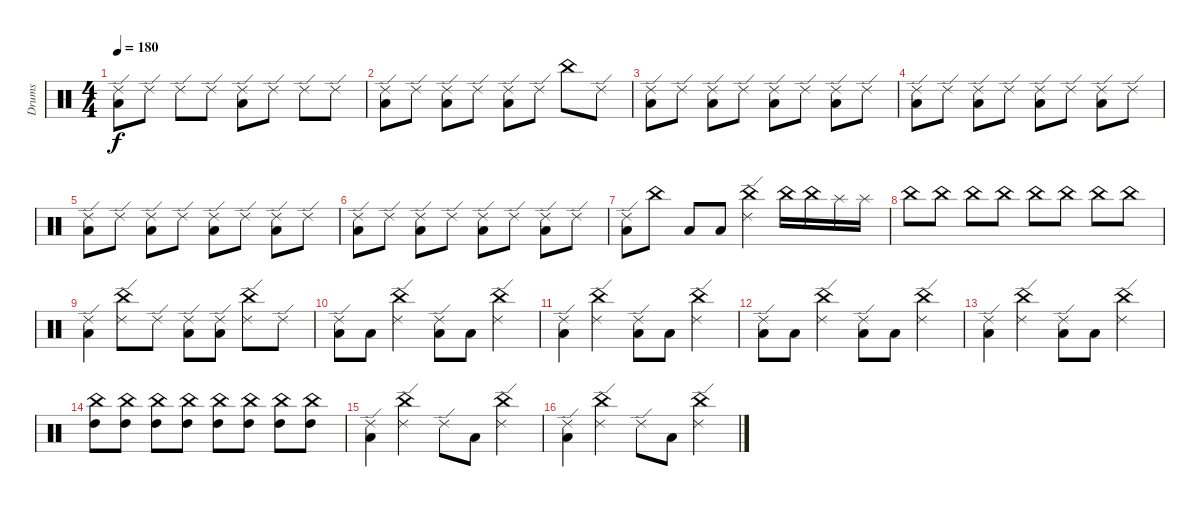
\track ("Drums" "Drums") {instrument percussion}
\staff {score}
\articulation defaults
\ts (4 4)
\tempo 180
\clef neutral
\ks c
("Low Tom (hit)" "Ride (edge) 2").8{dy f} "Ride (edge) 2".8 "Ride (edge) 2".8 "Ride (edge) 2".8 ("Low Tom (hit)" "Ride (edge) 2").8 "Ride (edge) 2".8 "Ride (edge) 2".8 "Ride (edge) 2".8 |
("Low Tom (hit)" "Ride (edge) 2").8 "Ride (edge) 2".8 ("Low Tom (hit)" "Ride (edge) 2").8 "Ride (edge) 2".8 ("Low Tom (hit)" "Ride (edge) 2").8 "Ride (edge) 2".8 "China (hit)".8 "Ride (edge) 2".8 |
("Low Tom (hit)" "Ride (edge) 2").8 "Ride (edge) 2".8 ("Low Tom (hit)" "Ride (edge) 2").8 "Ride (edge) 2".8 ("Low Tom (hit)" "Ride (edge) 2").8 "Ride (edge) 2".8 ("Low Tom (hit)" "Ride (edge) 2").8 "Ride (edge) 2".8 |
("Low Tom (hit)" "Ride (edge) 2").8 "Ride (edge) 2".8 ("Ride (edge) 2" "Low Tom (hit)").8 "Ride (edge) 2".8 ("Low Tom (hit)" "Ride (edge) 2").8 "Ride (edge) 2".8 ("Low Tom (hit)" "Ride (edge) 2").8 "Ride (edge) 2".8 |
("Low Tom (hit)" "Ride (edge) 2").8 "Ride (edge) 2".8 ("Low Tom (hit)" "Ride (edge) 2").8 "Ride (edge) 2".8 ("Ride (edge) 2" "Low Tom (hit)").8 "Ride (edge) 2".8 ("Low Tom (hit)" "Ride (edge) 2").8 "Ride (edge) 2".8 |
("Low Tom (hit)" "Ride (edge) 2").8 "Ride (edge) 2".8 ("Ride (edge) 2" "Low Tom (hit)").8 "Ride (edge) 2".8 ("Low Tom (hit)" "Ride (edge) 2").8 "Ride (edge) 2".8 ("Ride (edge) 2" "Low Tom (hit)").8 "Ride (edge) 2".8 |
("Low Tom (hit)" "Ride (edge) 2").8 "China (hit)".8 "Low Tom (hit)".8 "Low Tom (hit)".8 ("China (hit)" "Ride (edge) 2").4 "China (hit)".16 "China (hit)".16 "Splash (hit)".16 "Splash (hit)".16 |
"China (hit)".8 "China (hit)".8 "China (hit)".8 "China (hit)".8 "China (hit)".8 "China (hit)".8 "China (hit)".8 "China (hit)".8 |
("Low Tom (hit)" "Ride (edge) 2").4 ("China (hit)" "Ride (edge) 2").8 "Ride (edge) 2".8 ("Low Tom (hit)" "Ride (edge) 2").8 ("Low Tom (hit)" "Ride (edge) 2").8 ("China (hit)" "Ride (edge) 2").8 "Ride (edge) 2".8 |
("Low Tom (hit)" "Ride (edge) 2").8 "Low Tom (hit)".8 ("China (hit)" "Ride (edge) 2").4 ("Low Tom (hit)" "Ride (edge) 2").8 "Low Tom (hit)".8 ("China (hit)" "Ride (edge) 2").4 |
("Low Tom (hit)" "Ride (edge) 2").4 ("China (hit)" "Ride (edge) 2").4 ("Low Tom (hit)" "Ride (edge) 2").8 "Low Tom (hit)".8 ("China (hit)" "Ride (edge) 2").4 |
("Low Tom (hit)" "Ride (edge) 2").8 "Low Tom (hit)".8 ("China (hit)" "Ride (edge) 2").4 ("Low Tom (hit)" "Ride (edge) 2").8 "Low Tom (hit)".8 ("China (hit)" "Ride (edge) 2").4 |
("Low Tom (hit)" "Ride (edge) 2").4 ("China (hit)" "Ride (edge) 2").4 ("Low Tom (hit)" "Ride (edge) 2").8 "Low Tom (hit)".8 ("China (hit)" "Ride (edge) 2").4 |
("High Tom (hit)" "China (hit)").8 ("High Tom (hit)" "China (hit)").8 ("High Tom (hit)" "China (hit)").8 ("High Tom (hit)" "China (hit)").8 ("High Tom (hit)" "China (hit)").8 ("High Tom (hit)" "China (hit)").8 ("High Tom (hit)" "China (hit)").8 ("High Tom (hit)" "China (hit)").8 |
("Ride (edge) 2" "Low Tom (hit)").4 ("China (hit)" "Ride (edge) 2").4 "Ride (edge) 2".8 "Low Tom (hit)".8 ("China (hit)" "Ride (edge) 2").4 |
("Low Tom (hit)" "Ride (edge) 2").4 ("China (hit)" "Ride (edge) 2").4 "Ride (edge) 2".8 "Low Tom (hit)".8 ("China (hit)" "Ride (edge) 2").4
